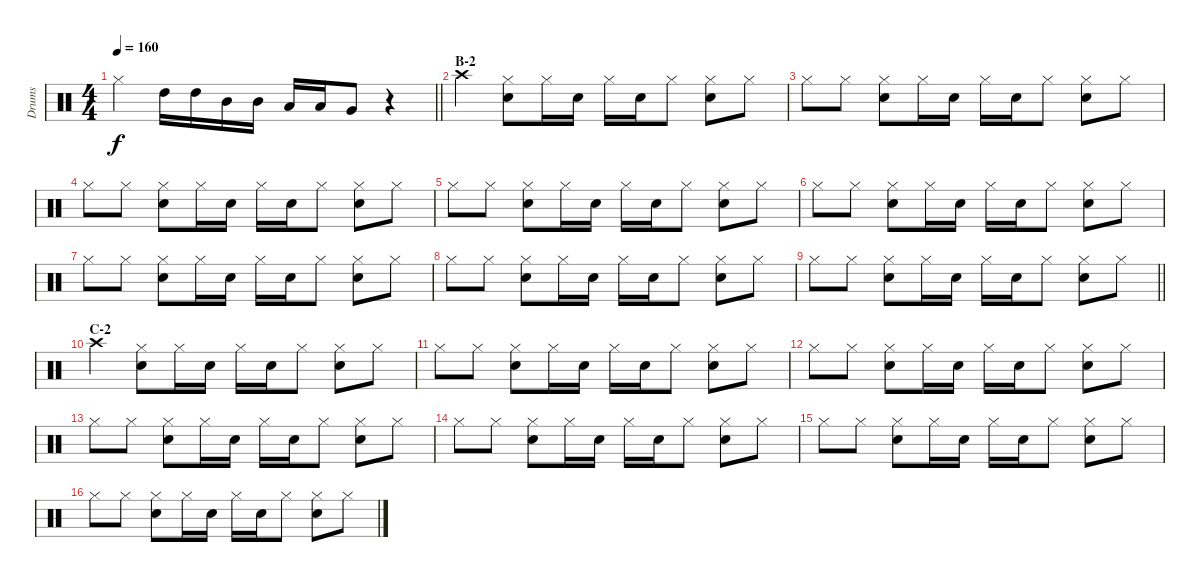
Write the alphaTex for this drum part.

\track ("Drums" "Drums") {instrument percussion}
\staff {score}
\articulation defaults
\ts (4 4)
\tempo 160
\clef neutral
\barLineRight lightlight
\ks c "Hi-Hat (closed)".4{dy f} "High Tom (hit)".16 "High Tom (hit)".16 "Mid Tom (hit)".16 "Mid Tom (hit)".16 "Low Tom (hit)".16 "Low Tom (hit)".16 "Very Low Tom (hit)".8
r.4 |
\section ("" "B-2")
"Crash high (hit)".4 ("Hi-Hat (closed)" "Snare (hit) 2").8 "Hi-Hat (closed)".16 "Snare (hit) 2".16 "Hi-Hat (closed)".16 "Snare (hit) 2".16 "Hi-Hat (closed)".8 ("Hi-Hat (closed)" "Snare (hit) 2").8 "Hi-Hat (closed)".8 |
"Hi-Hat (closed)".8 "Hi-Hat (closed)".8 ("Hi-Hat (closed)" "Snare (hit) 2").8 "Hi-Hat (closed)".16 "Snare (hit) 2".16 "Hi-Hat (closed)".16 "Snare (hit) 2".16 "Hi-Hat (closed)".8 ("Hi-Hat (closed)" "Snare (hit) 2").8 "Hi-Hat (closed)".8 |
"Hi-Hat (closed)".8 "Hi-Hat (closed)".8 ("Hi-Hat (closed)" "Snare (hit) 2").8 "Hi-Hat (closed)".16 "Snare (hit) 2".16 "Hi-Hat (closed)".16 "Snare (hit) 2".16 "Hi-Hat (closed)".8 ("Hi-Hat (closed)" "Snare (hit) 2").8 "Hi-Hat (closed)".8 |
"Hi-Hat (closed)".8 "Hi-Hat (closed)".8 ("Hi-Hat (closed)" "Snare (hit) 2").8 "Hi-Hat (closed)".16 "Snare (hit) 2".16 "Hi-Hat (closed)".16 "Snare (hit) 2".16 "Hi-Hat (closed)".8 ("Hi-Hat (closed)" "Snare (hit) 2").8 "Hi-Hat (closed)".8 |
"Hi-Hat (closed)".8 "Hi-Hat (closed)".8 ("Hi-Hat (closed)" "Snare (hit) 2").8 "Hi-Hat (closed)".16 "Snare (hit) 2".16 "Hi-Hat (closed)".16 "Snare (hit) 2".16 "Hi-Hat (closed)".8 ("Hi-Hat (closed)" "Snare (hit) 2").8 "Hi-Hat (closed)".8 |
"Hi-Hat (closed)".8 "Hi-Hat (closed)".8 ("Hi-Hat (closed)" "Snare (hit) 2").8 "Hi-Hat (closed)".16 "Snare (hit) 2".16 "Hi-Hat (closed)".16 "Snare (hit) 2".16 "Hi-Hat (closed)".8 ("Hi-Hat (closed)" "Snare (hit) 2").8 "Hi-Hat (closed)".8 |
"Hi-Hat (closed)".8 "Hi-Hat (closed)".8 ("Hi-Hat (closed)" "Snare (hit) 2").8 "Hi-Hat (closed)".16 "Snare (hit) 2".16 "Hi-Hat (closed)".16 "Snare (hit) 2".16 "Hi-Hat (closed)".8 ("Hi-Hat (closed)" "Snare (hit) 2").8 "Hi-Hat (closed)".8 |
\barLineRight lightlight "Hi-Hat (closed)".8 "Hi-Hat (closed)".8
("Hi-Hat (closed)" "Snare (hit) 2").8 "Hi-Hat (closed)".16 "Snare (hit) 2".16 "Hi-Hat (closed)".16 "Snare (hit) 2".16 "Hi-Hat (closed)".8 ("Hi-Hat (closed)" "Snare (hit) 2").8 "Hi-Hat (closed)".8 |
\section ("" "C-2")
"Crash high (hit)".4 ("Hi-Hat (closed)" "Snare (hit) 2").8 "Hi-Hat (closed)".16 "Snare (hit) 2".16 "Hi-Hat (closed)".16 "Snare (hit) 2".16 "Hi-Hat (closed)".8 ("Hi-Hat (closed)" "Snare (hit) 2").8 "Hi-Hat (closed)".8 |
"Hi-Hat (closed)".8 "Hi-Hat (closed)".8 ("Hi-Hat (closed)" "Snare (hit) 2").8 "Hi-Hat (closed)".16 "Snare (hit) 2".16 "Hi-Hat (closed)".16 "Snare (hit) 2".16 "Hi-Hat (closed)".8 ("Hi-Hat (closed)" "Snare (hit) 2").8 "Hi-Hat (closed)".8 |
"Hi-Hat (closed)".8 "Hi-Hat (closed)".8 ("Hi-Hat (closed)" "Snare (hit) 2").8 "Hi-Hat (closed)".16 "Snare (hit) 2".16 "Hi-Hat (closed)".16 "Snare (hit) 2".16 "Hi-Hat (closed)".8 ("Hi-Hat (closed)" "Snare (hit) 2").8 "Hi-Hat (closed)".8 |
"Hi-Hat (closed)".8 "Hi-Hat (closed)".8 ("Hi-Hat (closed)" "Snare (hit) 2").8 "Hi-Hat (closed)".16 "Snare (hit) 2".16 "Hi-Hat (closed)".16 "Snare (hit) 2".16 "Hi-Hat (closed)".8 ("Hi-Hat (closed)" "Snare (hit) 2").8 "Hi-Hat (closed)".8 |
"Hi-Hat (closed)".8 "Hi-Hat (closed)".8 ("Hi-Hat (closed)" "Snare (hit) 2").8 "Hi-Hat (closed)".16 "Snare (hit) 2".16 "Hi-Hat (closed)".16 "Snare (hit) 2".16 "Hi-Hat (closed)".8 ("Hi-Hat (closed)" "Snare (hit) 2").8 "Hi-Hat (closed)".8 |
"Hi-Hat (closed)".8 "Hi-Hat (closed)".8 ("Hi-Hat (closed)" "Snare (hit) 2").8 "Hi-Hat (closed)".16 "Snare (hit) 2".16 "Hi-Hat (closed)".16 "Snare (hit) 2".16 "Hi-Hat (closed)".8 ("Hi-Hat (closed)" "Snare (hit) 2").8 "Hi-Hat (closed)".8 |
"Hi-Hat (closed)".8 "Hi-Hat (closed)".8 ("Hi-Hat (closed)" "Snare (hit) 2").8 "Hi-Hat (closed)".16 "Snare (hit) 2".16 "Hi-Hat (closed)".16 "Snare (hit) 2".16 "Hi-Hat (closed)".8 ("Hi-Hat (closed)" "Snare (hit) 2").8 "Hi-Hat (closed)".8
